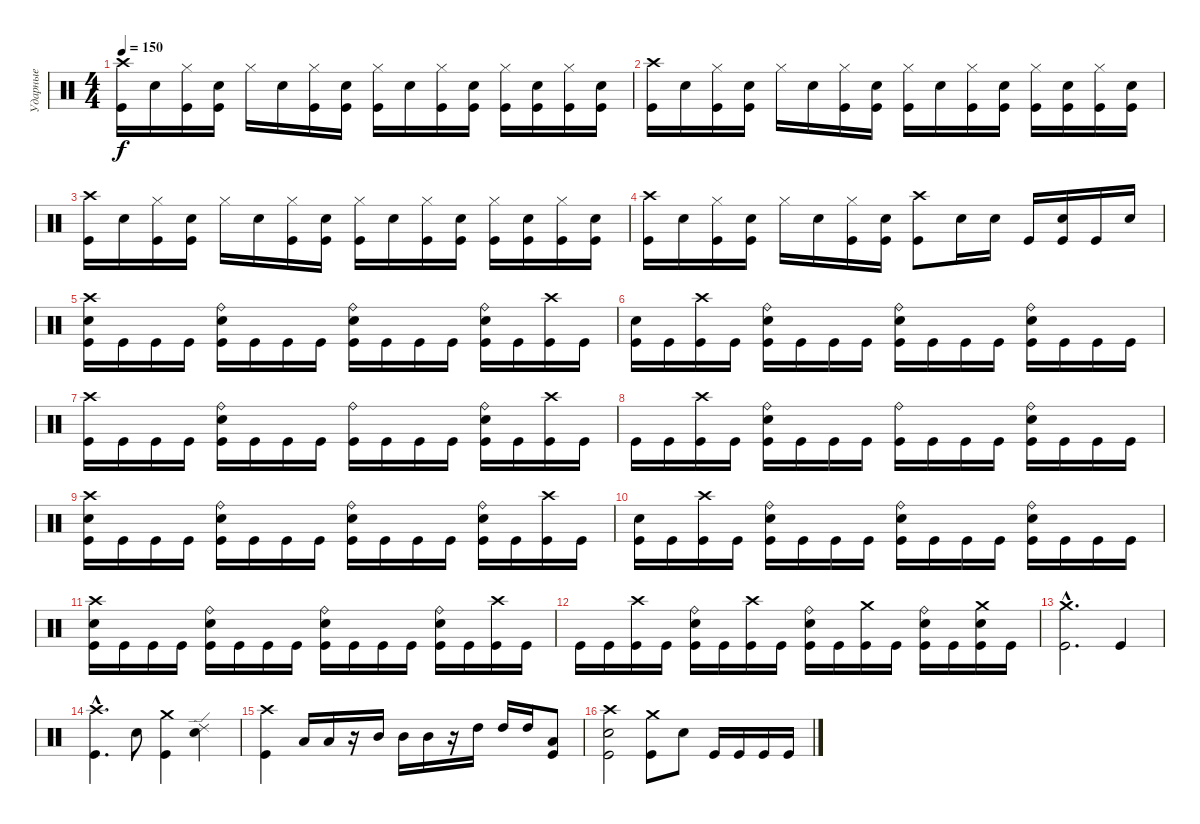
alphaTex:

\track ("Ударные" "Ударные") {instrument percussion}
\staff {score}
\articulation defaults
\ts (4 4)
\tempo 150
\clef neutral
\ks c
("Crash high (hit)" "Kick (hit)").16{dy f} "Electric Snare (hit)".16 ("Hi-Hat (closed)" "Kick (hit)").16 ("Electric Snare (hit)" "Kick (hit)").16 "Hi-Hat (closed)".16 "Electric Snare (hit)".16 ("Hi-Hat (closed)" "Kick (hit)").16 ("Electric Snare (hit)" "Kick (hit)").16 ("Hi-Hat (closed)" "Kick (hit)").16 "Electric Snare (hit)".16 ("Hi-Hat (closed)" "Kick (hit)").16 ("Electric Snare (hit)" "Kick (hit)").16 ("Hi-Hat (closed)" "Kick (hit)").16 ("Electric Snare (hit)" "Kick (hit)").16 ("Hi-Hat (closed)" "Kick (hit)").16 ("Electric Snare (hit)" "Kick (hit)").16 |
("Crash high (hit)" "Kick (hit)").16 "Electric Snare (hit)".16 ("Hi-Hat (closed)" "Kick (hit)").16 ("Electric Snare (hit)" "Kick (hit)").16 "Hi-Hat (closed)".16 "Electric Snare (hit)".16 ("Hi-Hat (closed)" "Kick (hit)").16 ("Electric Snare (hit)" "Kick (hit)").16 ("Hi-Hat (closed)" "Kick (hit)").16 "Electric Snare (hit)".16 ("Hi-Hat (closed)" "Kick (hit)").16 ("Electric Snare (hit)" "Kick (hit)").16 ("Hi-Hat (closed)" "Kick (hit)").16 ("Electric Snare (hit)" "Kick (hit)").16 ("Hi-Hat (closed)" "Kick (hit)").16 ("Electric Snare (hit)" "Kick (hit)").16 |
("Crash high (hit)" "Kick (hit)").16 "Electric Snare (hit)".16 ("Hi-Hat (closed)" "Kick (hit)").16 ("Electric Snare (hit)" "Kick (hit)").16 "Hi-Hat (closed)".16 "Electric Snare (hit)".16 ("Hi-Hat (closed)" "Kick (hit)").16 ("Electric Snare (hit)" "Kick (hit)").16 ("Hi-Hat (closed)" "Kick (hit)").16 "Electric Snare (hit)".16 ("Hi-Hat (closed)" "Kick (hit)").16 ("Electric Snare (hit)" "Kick (hit)").16 ("Hi-Hat (closed)" "Kick (hit)").16 ("Electric Snare (hit)" "Kick (hit)").16 ("Hi-Hat (closed)" "Kick (hit)").16 ("Electric Snare (hit)" "Kick (hit)").16 |
("Crash high (hit)" "Kick (hit)").16 "Electric Snare (hit)".16 ("Hi-Hat (closed)" "Kick (hit)").16 ("Electric Snare (hit)" "Kick (hit)").16 "Hi-Hat (closed)".16 "Electric Snare (hit)".16 ("Hi-Hat (closed)" "Kick (hit)").16 ("Electric Snare (hit)" "Kick (hit)").16 ("Crash high (hit)" "Kick (hit)").8 "Electric Snare (hit)".16 "Electric Snare (hit)".16 "Kick (hit)".16 ("Electric Snare (hit)" "Kick (hit)").16 "Kick (hit)".16 "Electric Snare (hit)".16 |
("Crash high (hit)" "Electric Snare (hit)" "Kick (hit)").16 "Kick (hit)".16 "Kick (hit)".16 "Kick (hit)".16 ("Ride (bell)" "Electric Snare (hit)" "Kick (hit)").16 "Kick (hit)".16 "Kick (hit)".16 "Kick (hit)".16 ("Ride (bell)" "Electric Snare (hit)" "Kick (hit)").16 "Kick (hit)".16 "Kick (hit)".16 "Kick (hit)".16 ("Ride (bell)" "Electric Snare (hit)" "Kick (hit)").16 "Kick (hit)".16 ("Crash high (hit)" "Kick (hit)").16 "Kick (hit)".16 |
("Electric Snare (hit)" "Kick (hit)").16 "Kick (hit)".16 ("Crash high (hit)" "Kick (hit)").16 "Kick (hit)".16 ("Ride (bell)" "Electric Snare (hit)" "Kick (hit)").16 "Kick (hit)".16 "Kick (hit)".16 "Kick (hit)".16 ("Ride (bell)" "Electric Snare (hit)" "Kick (hit)").16 "Kick (hit)".16 "Kick (hit)".16 "Kick (hit)".16 ("Ride (bell)" "Electric Snare (hit)" "Kick (hit)").16 "Kick (hit)".16 "Kick (hit)".16 "Kick (hit)".16 |
("Crash high (hit)" "Kick (hit)").16 "Kick (hit)".16 "Kick (hit)".16 "Kick (hit)".16 ("Ride (bell)" "Electric Snare (hit)" "Kick (hit)").16 "Kick (hit)".16 "Kick (hit)".16 "Kick (hit)".16 ("Ride (bell)" "Kick (hit)").16 "Kick (hit)".16 "Kick (hit)".16 "Kick (hit)".16 ("Ride (bell)" "Electric Snare (hit)" "Kick (hit)").16 "Kick (hit)".16 ("Crash high (hit)" "Kick (hit)").16 "Kick (hit)".16 |
"Kick (hit)".16 "Kick (hit)".16 ("Crash high (hit)" "Kick (hit)").16 "Kick (hit)".16 ("Ride (bell)" "Electric Snare (hit)" "Kick (hit)").16 "Kick (hit)".16 "Kick (hit)".16 "Kick (hit)".16 ("Ride (bell)" "Kick (hit)").16 "Kick (hit)".16 "Kick (hit)".16 "Kick (hit)".16 ("Ride (bell)" "Electric Snare (hit)" "Kick (hit)").16 "Kick (hit)".16 "Kick (hit)".16 "Kick (hit)".16 |
("Crash high (hit)" "Electric Snare (hit)" "Kick (hit)").16 "Kick (hit)".16 "Kick (hit)".16 "Kick (hit)".16 ("Ride (bell)" "Electric Snare (hit)" "Kick (hit)").16 "Kick (hit)".16 "Kick (hit)".16 "Kick (hit)".16 ("Ride (bell)" "Electric Snare (hit)" "Kick (hit)").16 "Kick (hit)".16 "Kick (hit)".16 "Kick (hit)".16 ("Ride (bell)" "Electric Snare (hit)" "Kick (hit)").16 "Kick (hit)".16 ("Crash high (hit)" "Kick (hit)").16 "Kick (hit)".16 |
("Electric Snare (hit)" "Kick (hit)").16 "Kick (hit)".16 ("Crash high (hit)" "Kick (hit)").16 "Kick (hit)".16 ("Ride (bell)" "Electric Snare (hit)" "Kick (hit)").16 "Kick (hit)".16 "Kick (hit)".16 "Kick (hit)".16 ("Ride (bell)" "Electric Snare (hit)" "Kick (hit)").16 "Kick (hit)".16 "Kick (hit)".16 "Kick (hit)".16 ("Ride (bell)" "Electric Snare (hit)" "Kick (hit)").16 "Kick (hit)".16 "Kick (hit)".16 "Kick (hit)".16 |
("Crash high (hit)" "Electric Snare (hit)" "Kick (hit)").16 "Kick (hit)".16 "Kick (hit)".16 "Kick (hit)".16 ("Ride (bell)" "Electric Snare (hit)" "Kick (hit)").16 "Kick (hit)".16 "Kick (hit)".16 "Kick (hit)".16 ("Ride (bell)" "Electric Snare (hit)" "Kick (hit)").16 "Kick (hit)".16 "Kick (hit)".16 "Kick (hit)".16 ("Ride (bell)" "Electric Snare (hit)" "Kick (hit)").16 "Kick (hit)".16 ("Crash high (hit)" "Kick (hit)").16 "Kick (hit)".16 |
"Kick (hit)".16 "Kick (hit)".16 ("Crash high (hit)" "Kick (hit)").16 "Kick (hit)".16 ("Ride (bell)" "Electric Snare (hit)" "Kick (hit)").16 "Kick (hit)".16 ("Crash high (hit)" "Kick (hit)").16 "Kick (hit)".16 ("Ride (bell)" "Electric Snare (hit)" "Kick (hit)").16 "Kick (hit)".16 ("Crash medium (hit)" "Kick (hit)").16 "Kick (hit)".16 ("Ride (bell)" "Electric Snare (hit)" "Kick (hit)").16 "Kick (hit)".16 ("Crash medium (hit)" "Electric Snare (hit)" "Kick (hit)").16 "Kick (hit)".16 |
("Crash medium (hit)"{hac} "Kick (hit)"{hac}).2{d} "Kick (hit)".4 |
("Crash high (hit)"{hac} "Kick (hit)"{hac}).4{d} "Electric Snare (hit)".8 ("Crash medium (hit)" "Kick (hit)").4 ("Ride (edge) 2" "Electric Snare (hit)").4 |
("Crash high (hit)" "Kick (hit)").4 "Low Tom (hit)".16 "Low Tom (hit)".16 r.16 "Mid Tom (hit)".16 "Mid Tom (hit)".16 "Mid Tom (hit)".16 r.16 "High Tom (hit)".16 "High Tom (hit)".16 "High Tom (hit)".16 ("Low Tom (hit)" "Kick (hit)").8 |
("Crash high (hit)" "Electric Snare (hit)" "Kick (hit)").2 ("Crash medium (hit)" "Kick (hit)").8 "Electric Snare (hit)".8 "Kick (hit)".16 "Kick (hit)".16 "Kick (hit)".16 "Kick (hit)".16
